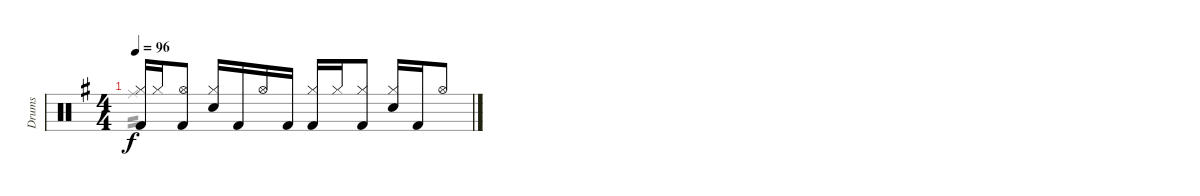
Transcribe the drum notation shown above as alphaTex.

\track ("Drums" "Drums") {instrument percussion}
\staff {score}
\articulation defaults
\voice
\ts (4 4)
\tempo 96
\clef neutral
\ks g
("Hi-Hat (closed)" "Kick (hit) 2").16{dy f} "Hi-Hat (closed)".16 ("Hi-Hat (open)" "Kick (hit) 2").8 ("Hi-Hat (closed)" "Electric Snare (hit)").16 "Kick (hit) 2".16 "Hi-Hat (open)".16 "Kick (hit) 2".16 ("Hi-Hat (closed)" "Kick (hit) 2").16 "Hi-Hat (closed)".16 ("Hi-Hat (closed)" "Kick (hit) 2").8 ("Hi-Hat (closed)" "Electric Snare (hit)").16 "Kick (hit) 2".16 "Hi-Hat (open)".8
\voice
\clef neutral
\ottava regular
\simile none
\ks g "Ride (middle)".1{tp 2 dy f}
